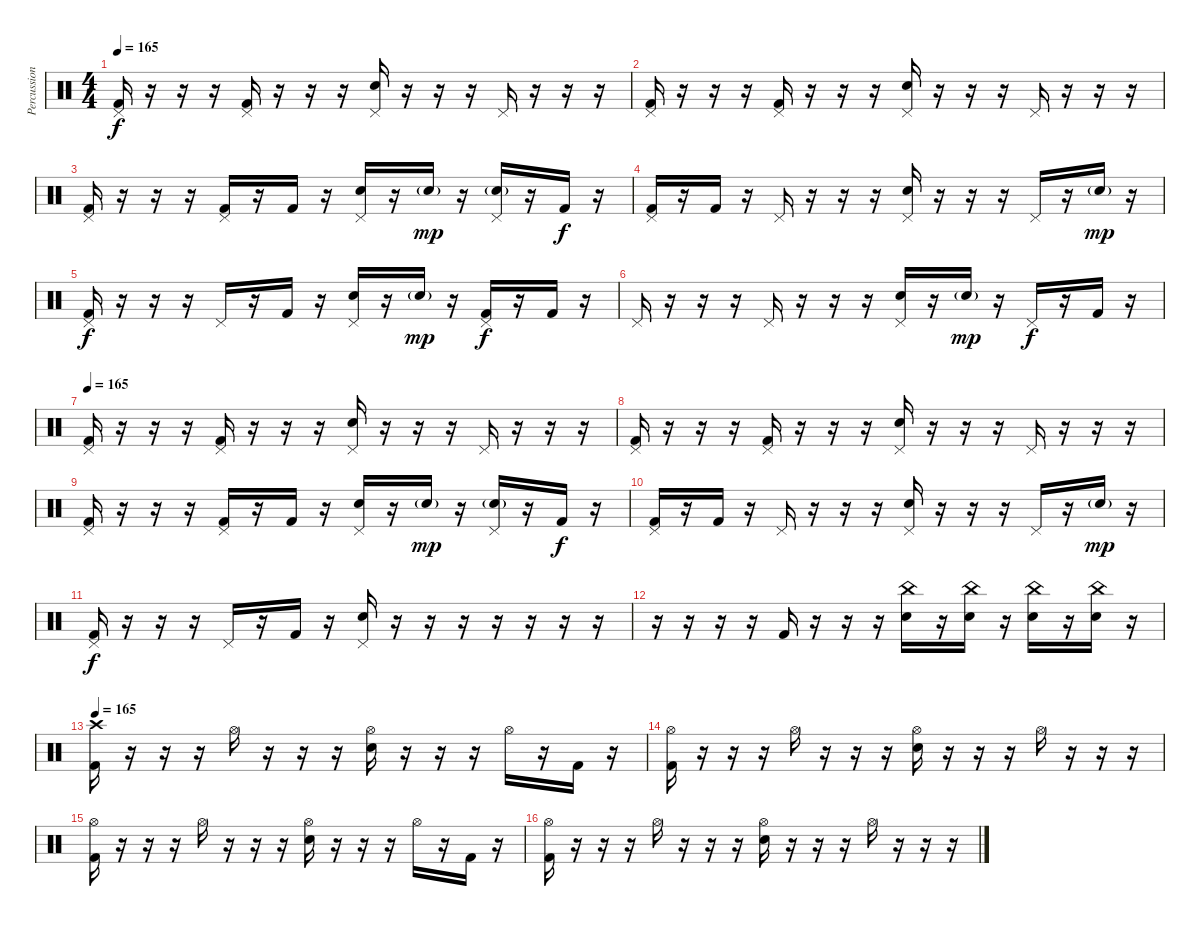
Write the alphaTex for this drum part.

\track ("Percussion" "Percussion") {instrument percussion}
\staff {score}
\articulation defaults
\ts (4 4)
\tempo 165
\clef neutral
\ks c
("Pedal Hi-Hat (hit)" "Kick (hit) 2").16{dy f} r.16 r.16 r.16 ("Pedal Hi-Hat (hit)" "Kick (hit) 2").16 r.16 r.16 r.16 ("Pedal Hi-Hat (hit)" "Snare (hit) 2").16 r.16 r.16 r.16 "Pedal Hi-Hat (hit)".16 r.16 r.16 r.16 |
("Pedal Hi-Hat (hit)" "Kick (hit) 2").16 r.16 r.16 r.16 ("Pedal Hi-Hat (hit)" "Kick (hit) 2").16 r.16 r.16 r.16 ("Pedal Hi-Hat (hit)" "Snare (hit) 2").16 r.16 r.16 r.16 "Pedal Hi-Hat (hit)".16 r.16 r.16 r.16 |
("Pedal Hi-Hat (hit)" "Kick (hit) 2").16 r.16 r.16 r.16 ("Pedal Hi-Hat (hit)" "Kick (hit) 2").16 r.16 "Kick (hit) 2".16 r.16 ("Pedal Hi-Hat (hit)" "Snare (hit) 2").16 r.16 "Snare (hit) 2"{g}.16{dy mp} r.16 ("Pedal Hi-Hat (hit)" "Snare (hit) 2"{g}).16 r.16 "Kick (hit) 2".16{dy f} r.16 |
("Pedal Hi-Hat (hit)" "Kick (hit) 2").16 r.16 "Kick (hit) 2".16 r.16 "Pedal Hi-Hat (hit)".16 r.16 r.16 r.16 ("Pedal Hi-Hat (hit)" "Snare (hit) 2").16 r.16 r.16 r.16 "Pedal Hi-Hat (hit)".16 r.16 "Snare (hit) 2"{g}.16{dy mp} r.16 |
("Pedal Hi-Hat (hit)" "Kick (hit) 2").16{dy f} r.16 r.16 r.16 "Pedal Hi-Hat (hit)".16 r.16 "Kick (hit) 2".16 r.16 ("Pedal Hi-Hat (hit)" "Snare (hit) 2").16 r.16 "Snare (hit) 2"{g}.16{dy mp} r.16 ("Pedal Hi-Hat (hit)" "Kick (hit) 2").16{dy f} r.16 "Kick (hit) 2".16 r.16 |
"Pedal Hi-Hat (hit)".16 r.16 r.16 r.16 "Pedal Hi-Hat (hit)".16 r.16 r.16 r.16 ("Pedal Hi-Hat (hit)" "Snare (hit) 2").16 r.16 "Snare (hit) 2"{g}.16{dy mp} r.16 "Pedal Hi-Hat (hit)".16{dy f} r.16 "Kick (hit) 2".16 r.16 |
\tempo 165
("Pedal Hi-Hat (hit)" "Kick (hit) 2").16 r.16 r.16 r.16 ("Pedal Hi-Hat (hit)" "Kick (hit) 2").16 r.16 r.16 r.16 ("Pedal Hi-Hat (hit)" "Snare (hit) 2").16 r.16 r.16 r.16 "Pedal Hi-Hat (hit)".16 r.16 r.16 r.16 |
("Pedal Hi-Hat (hit)" "Kick (hit) 2").16 r.16 r.16 r.16 ("Pedal Hi-Hat (hit)" "Kick (hit) 2").16 r.16 r.16 r.16 ("Pedal Hi-Hat (hit)" "Snare (hit) 2").16 r.16 r.16 r.16 "Pedal Hi-Hat (hit)".16 r.16 r.16 r.16 |
("Pedal Hi-Hat (hit)" "Kick (hit) 2").16 r.16 r.16 r.16 ("Pedal Hi-Hat (hit)" "Kick (hit) 2").16 r.16 "Kick (hit) 2".16 r.16 ("Pedal Hi-Hat (hit)" "Snare (hit) 2").16 r.16 "Snare (hit) 2"{g}.16{dy mp} r.16 ("Pedal Hi-Hat (hit)" "Snare (hit) 2"{g}).16 r.16 "Kick (hit) 2".16{dy f} r.16 |
("Pedal Hi-Hat (hit)" "Kick (hit) 2").16 r.16 "Kick (hit) 2".16 r.16 "Pedal Hi-Hat (hit)".16 r.16 r.16 r.16 ("Pedal Hi-Hat (hit)" "Snare (hit) 2").16 r.16 r.16 r.16 "Pedal Hi-Hat (hit)".16 r.16 "Snare (hit) 2"{g}.16{dy mp} r.16 |
("Pedal Hi-Hat (hit)" "Kick (hit) 2").16{dy f} r.16 r.16 r.16 "Pedal Hi-Hat (hit)".16 r.16 "Kick (hit) 2".16 r.16 ("Pedal Hi-Hat (hit)" "Snare (hit) 2").16 r.16 r.16 r.16 r.16 r.16 r.16 r.16 |
r.16 r.16 r.16 r.16 "Kick (hit) 2".16 r.16 r.16 r.16 ("China (hit)" "Snare (hit) 2").16 r.16 ("China (hit)" "Snare (hit) 2").16 r.16 ("China (hit)" "Snare (hit) 2").16 r.16 ("China (hit)" "Snare (hit) 2").16 r.16 |
\tempo 155
\tempo 165
("Crash high (hit)" "Kick (hit) 2").16 r.16 r.16 r.16 "Hi-Hat (open)".16 r.16 r.16 r.16 ("Hi-Hat (open)" "Snare (hit) 2").16 r.16 r.16 r.16 "Hi-Hat (open)".16 r.16 "Kick (hit) 2".16 r.16 |
("Hi-Hat (open)" "Kick (hit) 2").16 r.16 r.16 r.16 "Hi-Hat (open)".16 r.16 r.16 r.16 ("Hi-Hat (open)" "Snare (hit) 2").16 r.16 r.16 r.16 "Hi-Hat (open)".16 r.16 r.16 r.16 |
("Hi-Hat (open)" "Kick (hit) 2").16 r.16 r.16 r.16 "Hi-Hat (open)".16 r.16 r.16 r.16 ("Hi-Hat (open)" "Snare (hit) 2").16 r.16 r.16 r.16 "Hi-Hat (open)".16 r.16 "Kick (hit) 2".16 r.16 |
("Hi-Hat (open)" "Kick (hit) 2").16 r.16 r.16 r.16 "Hi-Hat (open)".16 r.16 r.16 r.16 ("Hi-Hat (open)" "Snare (hit) 2").16 r.16 r.16 r.16 "Hi-Hat (open)".16 r.16 r.16 r.16
